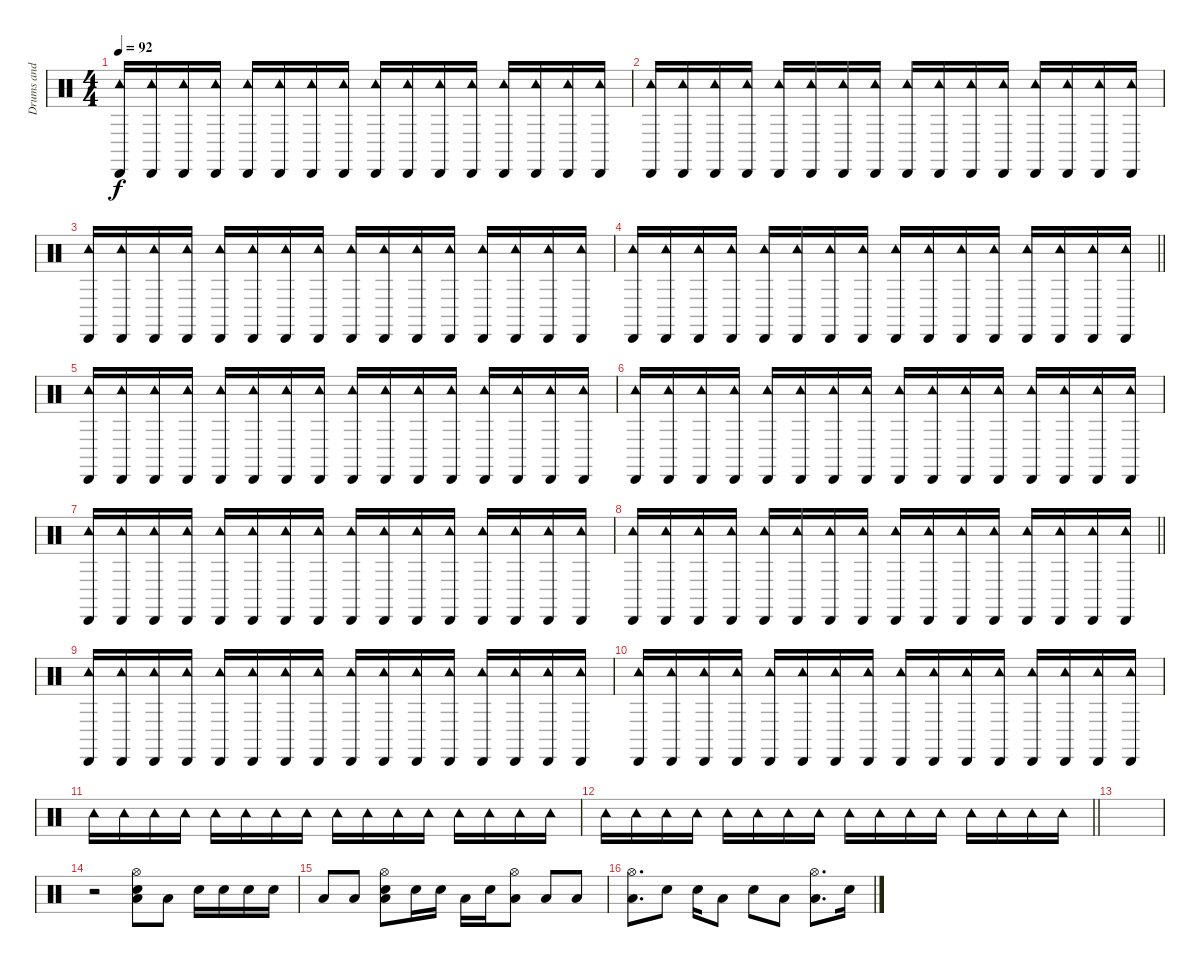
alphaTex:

\track ("Drums and Percussions" "Drums and ") {instrument percussion}
\staff {score}
\articulation defaults
\ts (4 4)
\tempo 92
\clef neutral
\ks c
("Cabasa (hit)" "Tambourine (hit)").16{dy f} ("Cabasa (hit)" "Tambourine (hit)").16 ("Cabasa (hit)" "Tambourine (hit)").16 ("Cabasa (hit)" "Tambourine (hit)").16 ("Cabasa (hit)" "Tambourine (hit)").16 ("Cabasa (hit)" "Tambourine (hit)").16 ("Cabasa (hit)" "Tambourine (hit)").16 ("Cabasa (hit)" "Tambourine (hit)").16 ("Cabasa (hit)" "Tambourine (hit)").16 ("Cabasa (hit)" "Tambourine (hit)").16 ("Cabasa (hit)" "Tambourine (hit)").16 ("Cabasa (hit)" "Tambourine (hit)").16 ("Cabasa (hit)" "Tambourine (hit)").16 ("Cabasa (hit)" "Tambourine (hit)").16 ("Cabasa (hit)" "Tambourine (hit)").16 ("Cabasa (hit)" "Tambourine (hit)").16 |
("Cabasa (hit)" "Tambourine (hit)").16 ("Cabasa (hit)" "Tambourine (hit)").16 ("Cabasa (hit)" "Tambourine (hit)").16 ("Cabasa (hit)" "Tambourine (hit)").16 ("Cabasa (hit)" "Tambourine (hit)").16 ("Cabasa (hit)" "Tambourine (hit)").16 ("Cabasa (hit)" "Tambourine (hit)").16 ("Cabasa (hit)" "Tambourine (hit)").16 ("Cabasa (hit)" "Tambourine (hit)").16 ("Cabasa (hit)" "Tambourine (hit)").16 ("Cabasa (hit)" "Tambourine (hit)").16 ("Cabasa (hit)" "Tambourine (hit)").16 ("Cabasa (hit)" "Tambourine (hit)").16 ("Cabasa (hit)" "Tambourine (hit)").16 ("Cabasa (hit)" "Tambourine (hit)").16 ("Cabasa (hit)" "Tambourine (hit)").16 |
("Cabasa (hit)" "Tambourine (hit)").16 ("Cabasa (hit)" "Tambourine (hit)").16 ("Cabasa (hit)" "Tambourine (hit)").16 ("Cabasa (hit)" "Tambourine (hit)").16 ("Cabasa (hit)" "Tambourine (hit)").16 ("Cabasa (hit)" "Tambourine (hit)").16 ("Cabasa (hit)" "Tambourine (hit)").16 ("Cabasa (hit)" "Tambourine (hit)").16 ("Cabasa (hit)" "Tambourine (hit)").16 ("Cabasa (hit)" "Tambourine (hit)").16 ("Cabasa (hit)" "Tambourine (hit)").16 ("Cabasa (hit)" "Tambourine (hit)").16 ("Cabasa (hit)" "Tambourine (hit)").16 ("Cabasa (hit)" "Tambourine (hit)").16 ("Cabasa (hit)" "Tambourine (hit)").16 ("Cabasa (hit)" "Tambourine (hit)").16 |
\barLineRight lightlight
("Cabasa (hit)" "Tambourine (hit)").16 ("Cabasa (hit)" "Tambourine (hit)").16 ("Cabasa (hit)" "Tambourine (hit)").16 ("Cabasa (hit)" "Tambourine (hit)").16 ("Cabasa (hit)" "Tambourine (hit)").16 ("Cabasa (hit)" "Tambourine (hit)").16 ("Cabasa (hit)" "Tambourine (hit)").16 ("Cabasa (hit)" "Tambourine (hit)").16 ("Cabasa (hit)" "Tambourine (hit)").16 ("Cabasa (hit)" "Tambourine (hit)").16 ("Cabasa (hit)" "Tambourine (hit)").16 ("Cabasa (hit)" "Tambourine (hit)").16 ("Cabasa (hit)" "Tambourine (hit)").16 ("Cabasa (hit)" "Tambourine (hit)").16 ("Cabasa (hit)" "Tambourine (hit)").16 ("Cabasa (hit)" "Tambourine (hit)").16 |
("Cabasa (hit)" "Tambourine (hit)").16 ("Cabasa (hit)" "Tambourine (hit)").16 ("Cabasa (hit)" "Tambourine (hit)").16 ("Cabasa (hit)" "Tambourine (hit)").16 ("Cabasa (hit)" "Tambourine (hit)").16 ("Cabasa (hit)" "Tambourine (hit)").16 ("Cabasa (hit)" "Tambourine (hit)").16 ("Cabasa (hit)" "Tambourine (hit)").16 ("Cabasa (hit)" "Tambourine (hit)").16 ("Cabasa (hit)" "Tambourine (hit)").16 ("Cabasa (hit)" "Tambourine (hit)").16 ("Cabasa (hit)" "Tambourine (hit)").16 ("Cabasa (hit)" "Tambourine (hit)").16 ("Cabasa (hit)" "Tambourine (hit)").16 ("Cabasa (hit)" "Tambourine (hit)").16 ("Cabasa (hit)" "Tambourine (hit)").16 |
("Cabasa (hit)" "Tambourine (hit)").16 ("Cabasa (hit)" "Tambourine (hit)").16 ("Cabasa (hit)" "Tambourine (hit)").16 ("Cabasa (hit)" "Tambourine (hit)").16 ("Cabasa (hit)" "Tambourine (hit)").16 ("Cabasa (hit)" "Tambourine (hit)").16 ("Cabasa (hit)" "Tambourine (hit)").16 ("Cabasa (hit)" "Tambourine (hit)").16 ("Cabasa (hit)" "Tambourine (hit)").16 ("Cabasa (hit)" "Tambourine (hit)").16 ("Cabasa (hit)" "Tambourine (hit)").16 ("Cabasa (hit)" "Tambourine (hit)").16 ("Cabasa (hit)" "Tambourine (hit)").16 ("Cabasa (hit)" "Tambourine (hit)").16 ("Cabasa (hit)" "Tambourine (hit)").16 ("Cabasa (hit)" "Tambourine (hit)").16 |
("Cabasa (hit)" "Tambourine (hit)").16 ("Cabasa (hit)" "Tambourine (hit)").16 ("Cabasa (hit)" "Tambourine (hit)").16 ("Cabasa (hit)" "Tambourine (hit)").16 ("Cabasa (hit)" "Tambourine (hit)").16 ("Cabasa (hit)" "Tambourine (hit)").16 ("Cabasa (hit)" "Tambourine (hit)").16 ("Cabasa (hit)" "Tambourine (hit)").16 ("Cabasa (hit)" "Tambourine (hit)").16 ("Cabasa (hit)" "Tambourine (hit)").16 ("Cabasa (hit)" "Tambourine (hit)").16 ("Cabasa (hit)" "Tambourine (hit)").16 ("Cabasa (hit)" "Tambourine (hit)").16 ("Cabasa (hit)" "Tambourine (hit)").16 ("Cabasa (hit)" "Tambourine (hit)").16 ("Cabasa (hit)" "Tambourine (hit)").16 |
\barLineRight lightlight
("Cabasa (hit)" "Tambourine (hit)").16 ("Cabasa (hit)" "Tambourine (hit)").16 ("Cabasa (hit)" "Tambourine (hit)").16 ("Cabasa (hit)" "Tambourine (hit)").16 ("Cabasa (hit)" "Tambourine (hit)").16 ("Cabasa (hit)" "Tambourine (hit)").16 ("Cabasa (hit)" "Tambourine (hit)").16 ("Cabasa (hit)" "Tambourine (hit)").16 ("Cabasa (hit)" "Tambourine (hit)").16 ("Cabasa (hit)" "Tambourine (hit)").16 ("Cabasa (hit)" "Tambourine (hit)").16 ("Cabasa (hit)" "Tambourine (hit)").16 ("Cabasa (hit)" "Tambourine (hit)").16 ("Cabasa (hit)" "Tambourine (hit)").16 ("Cabasa (hit)" "Tambourine (hit)").16 ("Cabasa (hit)" "Tambourine (hit)").16 |
("Cabasa (hit)" "Tambourine (hit)").16 ("Cabasa (hit)" "Tambourine (hit)").16 ("Cabasa (hit)" "Tambourine (hit)").16 ("Cabasa (hit)" "Tambourine (hit)").16 ("Cabasa (hit)" "Tambourine (hit)").16 ("Cabasa (hit)" "Tambourine (hit)").16 ("Cabasa (hit)" "Tambourine (hit)").16 ("Cabasa (hit)" "Tambourine (hit)").16 ("Cabasa (hit)" "Tambourine (hit)").16 ("Cabasa (hit)" "Tambourine (hit)").16 ("Cabasa (hit)" "Tambourine (hit)").16 ("Cabasa (hit)" "Tambourine (hit)").16 ("Cabasa (hit)" "Tambourine (hit)").16 ("Cabasa (hit)" "Tambourine (hit)").16 ("Cabasa (hit)" "Tambourine (hit)").16 ("Cabasa (hit)" "Tambourine (hit)").16 |
("Cabasa (hit)" "Tambourine (hit)").16 ("Cabasa (hit)" "Tambourine (hit)").16 ("Cabasa (hit)" "Tambourine (hit)").16 ("Cabasa (hit)" "Tambourine (hit)").16 ("Cabasa (hit)" "Tambourine (hit)").16 ("Cabasa (hit)" "Tambourine (hit)").16 ("Cabasa (hit)" "Tambourine (hit)").16 ("Cabasa (hit)" "Tambourine (hit)").16 ("Cabasa (hit)" "Tambourine (hit)").16 ("Cabasa (hit)" "Tambourine (hit)").16 ("Cabasa (hit)" "Tambourine (hit)").16 ("Cabasa (hit)" "Tambourine (hit)").16 ("Cabasa (hit)" "Tambourine (hit)").16 ("Cabasa (hit)" "Tambourine (hit)").16 ("Cabasa (hit)" "Tambourine (hit)").16 ("Cabasa (hit)" "Tambourine (hit)").16 |
"Tambourine (hit)".16 "Tambourine (hit)".16 "Tambourine (hit)".16 "Tambourine (hit)".16 "Tambourine (hit)".16 "Tambourine (hit)".16 "Tambourine (hit)".16 "Tambourine (hit)".16 "Tambourine (hit)".16 "Tambourine (hit)".16 "Tambourine (hit)".16 "Tambourine (hit)".16 "Tambourine (hit)".16 "Tambourine (hit)".16 "Tambourine (hit)".16 "Tambourine (hit)".16 |
\barLineRight lightlight "Tambourine (hit)".16 "Tambourine (hit)".16 "Tambourine (hit)".16 "Tambourine (hit)".16 "Tambourine (hit)".16 "Tambourine (hit)".16 "Tambourine (hit)".16 "Tambourine (hit)".16 "Tambourine (hit)".16 "Tambourine (hit)".16 "Tambourine (hit)".16 "Tambourine (hit)".16 "Tambourine (hit)".16 "Tambourine (hit)".16 "Tambourine (hit)".16 "Tambourine (hit)".16
|
|
r.2 ("Hi-Hat (open)" "Electric Snare (hit)" "Low Floor Tom (hit)").8 "Low Floor Tom (hit)".8 "Electric Snare (hit)".16 "Electric Snare (hit)".16 "Electric Snare (hit)".16 "Electric Snare (hit)".16 |
"Low Floor Tom (hit)".8 "Low Floor Tom (hit)".8 ("Hi-Hat (open)" "Electric Snare (hit)" "Low Floor Tom (hit)").8 "Electric Snare (hit)".16 "Electric Snare (hit)".16 "Low Floor Tom (hit)".16 "Electric Snare (hit)".16 ("Hi-Hat (open)" "Low Floor Tom (hit)").8 "Low Floor Tom (hit)".8 "Low Floor Tom (hit)".8 |
("Hi-Hat (open)" "Low Floor Tom (hit)").8{d} "Electric Snare (hit)".8 "Electric Snare (hit)".16 "Low Floor Tom (hit)".8 "Electric Snare (hit)".8 "Low Floor Tom (hit)".8 ("Hi-Hat (open)" "Low Floor Tom (hit)").8{d} "Electric Snare (hit)".16
